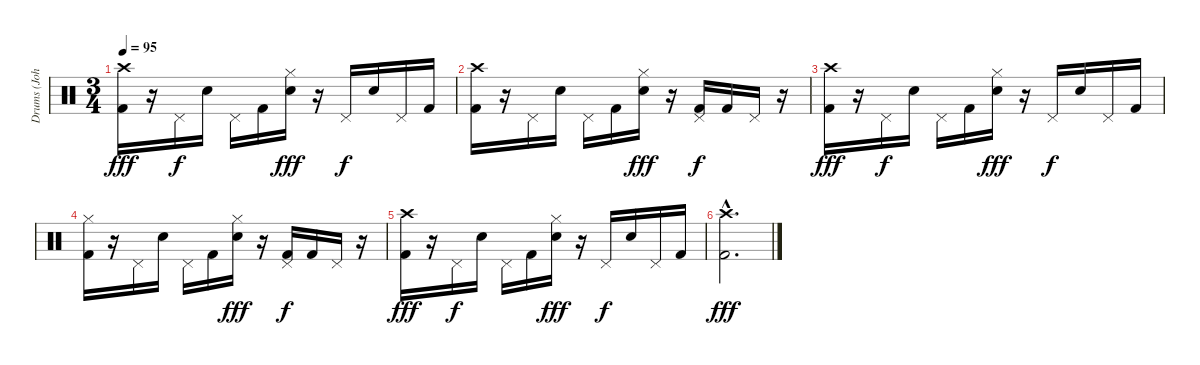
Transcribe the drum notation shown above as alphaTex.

\track ("Drums (John Otto)" "Drums (Joh") {instrument percussion}
\staff {score}
\articulation defaults
\ts (3 4)
\tempo 95
\clef neutral
\ks c
("Crash high (hit)" "Kick (hit) 2").16{dy fff} r.16 "Pedal Hi-Hat (hit)".16{dy f} "Electric Snare (hit)".16 "Pedal Hi-Hat (hit)".16 "Kick (hit) 2".16 ("Hi-Hat (closed)" "Electric Snare (hit)").16{dy fff} r.16 "Pedal Hi-Hat (hit)".16{dy f} "Electric Snare (hit)".16 "Pedal Hi-Hat (hit)".16 "Kick (hit) 2".16 |
("Crash high (hit)" "Kick (hit) 2").16 r.16 "Pedal Hi-Hat (hit)".16 "Electric Snare (hit)".16 "Pedal Hi-Hat (hit)".16 "Kick (hit) 2".16 ("Hi-Hat (closed)" "Electric Snare (hit)").16{dy fff} r.16 ("Pedal Hi-Hat (hit)" "Kick (hit) 2").16{dy f} "Kick (hit) 2".16 "Pedal Hi-Hat (hit)".16 r.16 |
("Crash high (hit)" "Kick (hit) 2").16{dy fff} r.16 "Pedal Hi-Hat (hit)".16{dy f} "Electric Snare (hit)".16 "Pedal Hi-Hat (hit)".16 "Kick (hit) 2".16 ("Hi-Hat (closed)" "Electric Snare (hit)").16{dy fff} r.16 "Pedal Hi-Hat (hit)".16{dy f} "Electric Snare (hit)".16 "Pedal Hi-Hat (hit)".16 "Kick (hit) 2".16 |
("Hi-Hat (closed)" "Kick (hit) 2").16 r.16 "Pedal Hi-Hat (hit)".16 "Electric Snare (hit)".16 "Pedal Hi-Hat (hit)".16 "Kick (hit) 2".16 ("Hi-Hat (closed)" "Electric Snare (hit)").16{dy fff} r.16 ("Pedal Hi-Hat (hit)" "Kick (hit) 2").16{dy f} "Kick (hit) 2".16 "Pedal Hi-Hat (hit)".16 r.16 |
("Crash high (hit)" "Kick (hit) 2").16{dy fff} r.16 "Pedal Hi-Hat (hit)".16{dy f} "Electric Snare (hit)".16 "Pedal Hi-Hat (hit)".16 "Kick (hit) 2".16 ("Hi-Hat (closed)" "Electric Snare (hit)").16{dy fff} r.16 "Pedal Hi-Hat (hit)".16{dy f} "Electric Snare (hit)".16 "Pedal Hi-Hat (hit)".16 "Kick (hit) 2".16 |
("Crash high (hit)"{hac} "Kick (hit) 2"{hac}).2{d dy fff}
